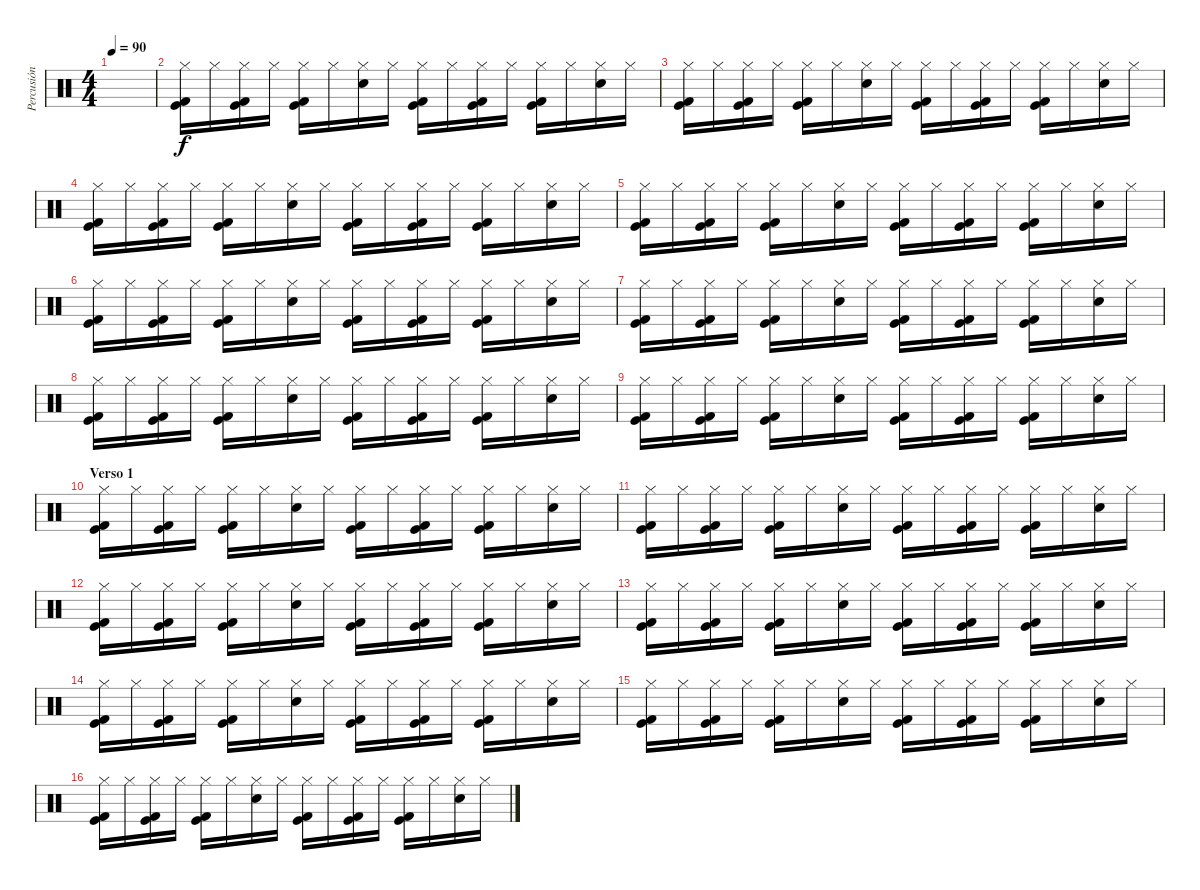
\track ("Percusión" "Percusión") {instrument percussion}
\staff {score}
\articulation defaults
\ts (4 4)
\tempo 90
\clef neutral
\ks c
|
("Kick (hit) 2" "Hi-Hat (closed)" "Kick (hit)").16 "Hi-Hat (closed)".16 ("Kick (hit) 2" "Hi-Hat (closed)" "Kick (hit)").16 "Hi-Hat (closed)".16 ("Kick (hit) 2" "Hi-Hat (closed)" "Kick (hit)").16 "Hi-Hat (closed)".16 ("Snare (hit) 2" "Hi-Hat (closed)").16 "Hi-Hat (closed)".16 ("Kick (hit) 2" "Hi-Hat (closed)" "Kick (hit)").16 "Hi-Hat (closed)".16 ("Kick (hit) 2" "Hi-Hat (closed)" "Kick (hit)").16 "Hi-Hat (closed)".16 ("Kick (hit) 2" "Hi-Hat (closed)" "Kick (hit)").16 "Hi-Hat (closed)".16 ("Snare (hit) 2" "Hi-Hat (closed)").16 "Hi-Hat (closed)".16 |
("Kick (hit) 2" "Hi-Hat (closed)" "Kick (hit)").16 "Hi-Hat (closed)".16 ("Kick (hit) 2" "Hi-Hat (closed)" "Kick (hit)").16 "Hi-Hat (closed)".16 ("Kick (hit) 2" "Hi-Hat (closed)" "Kick (hit)").16 "Hi-Hat (closed)".16 ("Snare (hit) 2" "Hi-Hat (closed)").16 "Hi-Hat (closed)".16 ("Kick (hit) 2" "Hi-Hat (closed)" "Kick (hit)").16 "Hi-Hat (closed)".16 ("Kick (hit) 2" "Hi-Hat (closed)" "Kick (hit)").16 "Hi-Hat (closed)".16 ("Kick (hit) 2" "Hi-Hat (closed)" "Kick (hit)").16 "Hi-Hat (closed)".16 ("Snare (hit) 2" "Hi-Hat (closed)").16 "Hi-Hat (closed)".16 |
("Kick (hit) 2" "Hi-Hat (closed)" "Kick (hit)").16 "Hi-Hat (closed)".16 ("Kick (hit) 2" "Hi-Hat (closed)" "Kick (hit)").16 "Hi-Hat (closed)".16 ("Kick (hit) 2" "Hi-Hat (closed)" "Kick (hit)").16 "Hi-Hat (closed)".16 ("Snare (hit) 2" "Hi-Hat (closed)").16 "Hi-Hat (closed)".16 ("Kick (hit) 2" "Hi-Hat (closed)" "Kick (hit)").16 "Hi-Hat (closed)".16 ("Kick (hit) 2" "Hi-Hat (closed)" "Kick (hit)").16 "Hi-Hat (closed)".16 ("Kick (hit) 2" "Hi-Hat (closed)" "Kick (hit)").16 "Hi-Hat (closed)".16 ("Snare (hit) 2" "Hi-Hat (closed)").16 "Hi-Hat (closed)".16 |
("Kick (hit) 2" "Hi-Hat (closed)" "Kick (hit)").16 "Hi-Hat (closed)".16 ("Kick (hit) 2" "Hi-Hat (closed)" "Kick (hit)").16 "Hi-Hat (closed)".16 ("Kick (hit) 2" "Hi-Hat (closed)" "Kick (hit)").16 "Hi-Hat (closed)".16 ("Snare (hit) 2" "Hi-Hat (closed)").16 "Hi-Hat (closed)".16 ("Kick (hit) 2" "Hi-Hat (closed)" "Kick (hit)").16 "Hi-Hat (closed)".16 ("Kick (hit) 2" "Hi-Hat (closed)" "Kick (hit)").16 "Hi-Hat (closed)".16 ("Kick (hit) 2" "Hi-Hat (closed)" "Kick (hit)").16 "Hi-Hat (closed)".16 ("Snare (hit) 2" "Hi-Hat (closed)").16 "Hi-Hat (closed)".16 |
("Kick (hit) 2" "Hi-Hat (closed)" "Kick (hit)").16 "Hi-Hat (closed)".16 ("Kick (hit) 2" "Hi-Hat (closed)" "Kick (hit)").16 "Hi-Hat (closed)".16 ("Kick (hit) 2" "Hi-Hat (closed)" "Kick (hit)").16 "Hi-Hat (closed)".16 ("Snare (hit) 2" "Hi-Hat (closed)").16 "Hi-Hat (closed)".16 ("Kick (hit) 2" "Hi-Hat (closed)" "Kick (hit)").16 "Hi-Hat (closed)".16 ("Kick (hit) 2" "Hi-Hat (closed)" "Kick (hit)").16 "Hi-Hat (closed)".16 ("Kick (hit) 2" "Hi-Hat (closed)" "Kick (hit)").16 "Hi-Hat (closed)".16 ("Snare (hit) 2" "Hi-Hat (closed)").16 "Hi-Hat (closed)".16 |
("Kick (hit) 2" "Hi-Hat (closed)" "Kick (hit)").16 "Hi-Hat (closed)".16 ("Kick (hit) 2" "Hi-Hat (closed)" "Kick (hit)").16 "Hi-Hat (closed)".16 ("Kick (hit) 2" "Hi-Hat (closed)" "Kick (hit)").16 "Hi-Hat (closed)".16 ("Snare (hit) 2" "Hi-Hat (closed)").16 "Hi-Hat (closed)".16 ("Kick (hit) 2" "Hi-Hat (closed)" "Kick (hit)").16 "Hi-Hat (closed)".16 ("Kick (hit) 2" "Hi-Hat (closed)" "Kick (hit)").16 "Hi-Hat (closed)".16 ("Kick (hit) 2" "Hi-Hat (closed)" "Kick (hit)").16 "Hi-Hat (closed)".16 ("Snare (hit) 2" "Hi-Hat (closed)").16 "Hi-Hat (closed)".16 |
("Kick (hit) 2" "Hi-Hat (closed)" "Kick (hit)").16 "Hi-Hat (closed)".16 ("Kick (hit) 2" "Hi-Hat (closed)" "Kick (hit)").16 "Hi-Hat (closed)".16 ("Kick (hit) 2" "Hi-Hat (closed)" "Kick (hit)").16 "Hi-Hat (closed)".16 ("Snare (hit) 2" "Hi-Hat (closed)").16 "Hi-Hat (closed)".16 ("Kick (hit) 2" "Hi-Hat (closed)" "Kick (hit)").16 "Hi-Hat (closed)".16 ("Kick (hit) 2" "Hi-Hat (closed)" "Kick (hit)").16 "Hi-Hat (closed)".16 ("Kick (hit) 2" "Hi-Hat (closed)" "Kick (hit)").16 "Hi-Hat (closed)".16 ("Snare (hit) 2" "Hi-Hat (closed)").16 "Hi-Hat (closed)".16 |
("Kick (hit) 2" "Hi-Hat (closed)" "Kick (hit)").16 "Hi-Hat (closed)".16 ("Kick (hit) 2" "Hi-Hat (closed)" "Kick (hit)").16 "Hi-Hat (closed)".16 ("Kick (hit) 2" "Hi-Hat (closed)" "Kick (hit)").16 "Hi-Hat (closed)".16 ("Snare (hit) 2" "Hi-Hat (closed)").16 "Hi-Hat (closed)".16 ("Kick (hit) 2" "Hi-Hat (closed)" "Kick (hit)").16 "Hi-Hat (closed)".16 ("Kick (hit) 2" "Hi-Hat (closed)" "Kick (hit)").16 "Hi-Hat (closed)".16 ("Kick (hit) 2" "Hi-Hat (closed)" "Kick (hit)").16 "Hi-Hat (closed)".16 ("Snare (hit) 2" "Hi-Hat (closed)").16 "Hi-Hat (closed)".16 |
\section ("" "Verso 1")
("Kick (hit) 2" "Hi-Hat (closed)" "Kick (hit)").16 "Hi-Hat (closed)".16 ("Kick (hit) 2" "Hi-Hat (closed)" "Kick (hit)").16 "Hi-Hat (closed)".16 ("Kick (hit) 2" "Hi-Hat (closed)" "Kick (hit)").16 "Hi-Hat (closed)".16 ("Snare (hit) 2" "Hi-Hat (closed)").16 "Hi-Hat (closed)".16 ("Kick (hit) 2" "Hi-Hat (closed)" "Kick (hit)").16 "Hi-Hat (closed)".16 ("Kick (hit) 2" "Hi-Hat (closed)" "Kick (hit)").16 "Hi-Hat (closed)".16 ("Kick (hit) 2" "Hi-Hat (closed)" "Kick (hit)").16 "Hi-Hat (closed)".16 ("Snare (hit) 2" "Hi-Hat (closed)").16 "Hi-Hat (closed)".16 |
("Kick (hit) 2" "Hi-Hat (closed)" "Kick (hit)").16 "Hi-Hat (closed)".16 ("Kick (hit) 2" "Hi-Hat (closed)" "Kick (hit)").16 "Hi-Hat (closed)".16 ("Kick (hit) 2" "Hi-Hat (closed)" "Kick (hit)").16 "Hi-Hat (closed)".16 ("Snare (hit) 2" "Hi-Hat (closed)").16 "Hi-Hat (closed)".16 ("Kick (hit) 2" "Hi-Hat (closed)" "Kick (hit)").16 "Hi-Hat (closed)".16 ("Kick (hit) 2" "Hi-Hat (closed)" "Kick (hit)").16 "Hi-Hat (closed)".16 ("Kick (hit) 2" "Hi-Hat (closed)" "Kick (hit)").16 "Hi-Hat (closed)".16 ("Snare (hit) 2" "Hi-Hat (closed)").16 "Hi-Hat (closed)".16 |
("Kick (hit) 2" "Hi-Hat (closed)" "Kick (hit)").16 "Hi-Hat (closed)".16 ("Kick (hit) 2" "Hi-Hat (closed)" "Kick (hit)").16 "Hi-Hat (closed)".16 ("Kick (hit) 2" "Hi-Hat (closed)" "Kick (hit)").16 "Hi-Hat (closed)".16 ("Snare (hit) 2" "Hi-Hat (closed)").16 "Hi-Hat (closed)".16 ("Kick (hit) 2" "Hi-Hat (closed)" "Kick (hit)").16 "Hi-Hat (closed)".16 ("Kick (hit) 2" "Hi-Hat (closed)" "Kick (hit)").16 "Hi-Hat (closed)".16 ("Kick (hit) 2" "Hi-Hat (closed)" "Kick (hit)").16 "Hi-Hat (closed)".16 ("Snare (hit) 2" "Hi-Hat (closed)").16 "Hi-Hat (closed)".16 |
("Kick (hit) 2" "Hi-Hat (closed)" "Kick (hit)").16 "Hi-Hat (closed)".16 ("Kick (hit) 2" "Hi-Hat (closed)" "Kick (hit)").16 "Hi-Hat (closed)".16 ("Kick (hit) 2" "Hi-Hat (closed)" "Kick (hit)").16 "Hi-Hat (closed)".16 ("Snare (hit) 2" "Hi-Hat (closed)").16 "Hi-Hat (closed)".16 ("Kick (hit) 2" "Hi-Hat (closed)" "Kick (hit)").16 "Hi-Hat (closed)".16 ("Kick (hit) 2" "Hi-Hat (closed)" "Kick (hit)").16 "Hi-Hat (closed)".16 ("Kick (hit) 2" "Hi-Hat (closed)" "Kick (hit)").16 "Hi-Hat (closed)".16 ("Snare (hit) 2" "Hi-Hat (closed)").16 "Hi-Hat (closed)".16 |
("Kick (hit) 2" "Hi-Hat (closed)" "Kick (hit)").16 "Hi-Hat (closed)".16 ("Kick (hit) 2" "Hi-Hat (closed)" "Kick (hit)").16 "Hi-Hat (closed)".16 ("Kick (hit) 2" "Hi-Hat (closed)" "Kick (hit)").16 "Hi-Hat (closed)".16 ("Snare (hit) 2" "Hi-Hat (closed)").16 "Hi-Hat (closed)".16 ("Kick (hit) 2" "Hi-Hat (closed)" "Kick (hit)").16 "Hi-Hat (closed)".16 ("Kick (hit) 2" "Hi-Hat (closed)" "Kick (hit)").16 "Hi-Hat (closed)".16 ("Kick (hit) 2" "Hi-Hat (closed)" "Kick (hit)").16 "Hi-Hat (closed)".16 ("Snare (hit) 2" "Hi-Hat (closed)").16 "Hi-Hat (closed)".16 |
("Kick (hit) 2" "Hi-Hat (closed)" "Kick (hit)").16 "Hi-Hat (closed)".16 ("Kick (hit) 2" "Hi-Hat (closed)" "Kick (hit)").16 "Hi-Hat (closed)".16 ("Kick (hit) 2" "Hi-Hat (closed)" "Kick (hit)").16 "Hi-Hat (closed)".16 ("Snare (hit) 2" "Hi-Hat (closed)").16 "Hi-Hat (closed)".16 ("Kick (hit) 2" "Hi-Hat (closed)" "Kick (hit)").16 "Hi-Hat (closed)".16 ("Kick (hit) 2" "Hi-Hat (closed)" "Kick (hit)").16 "Hi-Hat (closed)".16 ("Kick (hit) 2" "Hi-Hat (closed)" "Kick (hit)").16 "Hi-Hat (closed)".16 ("Snare (hit) 2" "Hi-Hat (closed)").16 "Hi-Hat (closed)".16 |
("Kick (hit) 2" "Hi-Hat (closed)" "Kick (hit)").16 "Hi-Hat (closed)".16 ("Kick (hit) 2" "Hi-Hat (closed)" "Kick (hit)").16 "Hi-Hat (closed)".16 ("Kick (hit) 2" "Hi-Hat (closed)" "Kick (hit)").16 "Hi-Hat (closed)".16 ("Snare (hit) 2" "Hi-Hat (closed)").16 "Hi-Hat (closed)".16 ("Kick (hit) 2" "Hi-Hat (closed)" "Kick (hit)").16 "Hi-Hat (closed)".16 ("Kick (hit) 2" "Hi-Hat (closed)" "Kick (hit)").16 "Hi-Hat (closed)".16 ("Kick (hit) 2" "Hi-Hat (closed)" "Kick (hit)").16 "Hi-Hat (closed)".16 ("Snare (hit) 2" "Hi-Hat (closed)").16 "Hi-Hat (closed)".16
